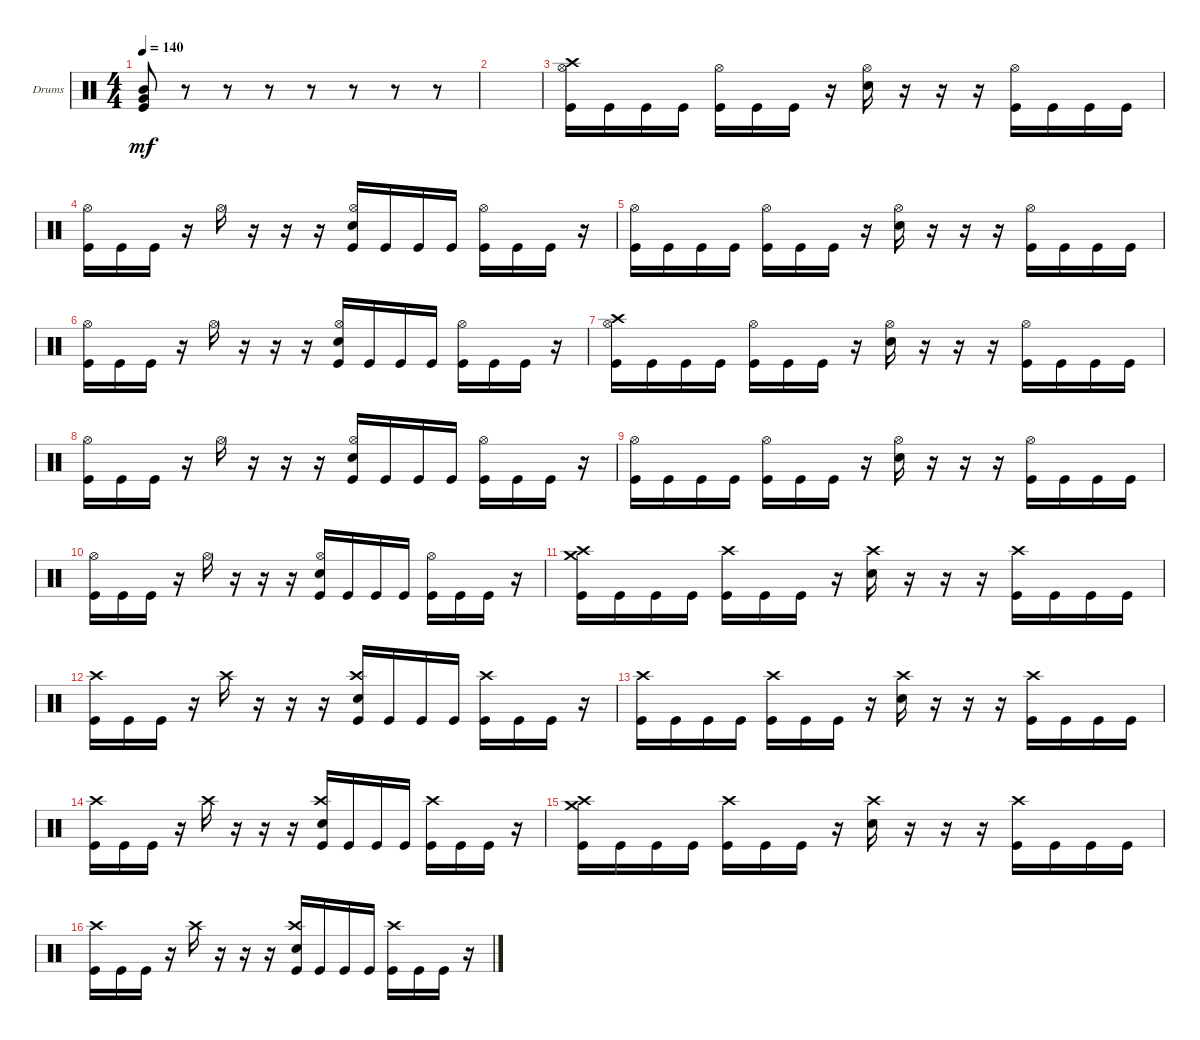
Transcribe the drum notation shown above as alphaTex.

\bracketExtendMode groupsimilarinstruments
\firstSystemTrackNameOrientation horizontal
\otherSystemsTrackNameOrientation horizontal
\track ("Drumkit" "Drums") {instrument percussion}
\staff {score}
\articulation defaults
\ts (4 4)
\tempo 140
\clef neutral
\ks c
("Very Low Tom (hit)" "Kick (hit)" "Mid Tom (hit)").8{dy mf} r.8 r.8 r.8 r.8 r.8 r.8 r.8 |
|
("Kick (hit)" "Hi-Hat (open)" "Crash high (hit)").16 "Kick (hit)".16 "Kick (hit)".16 "Kick (hit)".16 ("Kick (hit)" "Hi-Hat (open)").16 "Kick (hit)".16 "Kick (hit)".16 r.16 ("Hi-Hat (open)" "Snare (hit) 2").16 r.16 r.16 r.16 ("Kick (hit)" "Hi-Hat (open)").16 "Kick (hit)".16 "Kick (hit)".16 "Kick (hit)".16 |
("Kick (hit)" "Hi-Hat (open)").16 "Kick (hit)".16 "Kick (hit)".16 r.16 "Hi-Hat (open)".16 r.16 r.16 r.16 ("Kick (hit)" "Hi-Hat (open)" "Snare (hit) 2").16 "Kick (hit)".16 "Kick (hit)".16 "Kick (hit)".16 ("Kick (hit)" "Hi-Hat (open)").16 "Kick (hit)".16 "Kick (hit)".16 r.16 |
("Kick (hit)" "Hi-Hat (open)").16 "Kick (hit)".16 "Kick (hit)".16 "Kick (hit)".16 ("Kick (hit)" "Hi-Hat (open)").16 "Kick (hit)".16 "Kick (hit)".16 r.16 ("Hi-Hat (open)" "Snare (hit) 2").16 r.16 r.16 r.16 ("Kick (hit)" "Hi-Hat (open)").16 "Kick (hit)".16 "Kick (hit)".16 "Kick (hit)".16 |
("Kick (hit)" "Hi-Hat (open)").16 "Kick (hit)".16 "Kick (hit)".16 r.16 "Hi-Hat (open)".16 r.16 r.16 r.16 ("Kick (hit)" "Hi-Hat (open)" "Snare (hit) 2").16 "Kick (hit)".16 "Kick (hit)".16 "Kick (hit)".16 ("Kick (hit)" "Hi-Hat (open)").16 "Kick (hit)".16 "Kick (hit)".16 r.16 |
("Kick (hit)" "Hi-Hat (open)" "Crash high (hit)").16 "Kick (hit)".16 "Kick (hit)".16 "Kick (hit)".16 ("Kick (hit)" "Hi-Hat (open)").16 "Kick (hit)".16 "Kick (hit)".16 r.16 ("Hi-Hat (open)" "Snare (hit) 2").16 r.16 r.16 r.16 ("Kick (hit)" "Hi-Hat (open)").16 "Kick (hit)".16 "Kick (hit)".16 "Kick (hit)".16 |
("Kick (hit)" "Hi-Hat (open)").16 "Kick (hit)".16 "Kick (hit)".16 r.16 "Hi-Hat (open)".16 r.16 r.16 r.16 ("Kick (hit)" "Hi-Hat (open)" "Snare (hit) 2").16 "Kick (hit)".16 "Kick (hit)".16 "Kick (hit)".16 ("Kick (hit)" "Hi-Hat (open)").16 "Kick (hit)".16 "Kick (hit)".16 r.16 |
("Kick (hit)" "Hi-Hat (open)").16 "Kick (hit)".16 "Kick (hit)".16 "Kick (hit)".16 ("Kick (hit)" "Hi-Hat (open)").16 "Kick (hit)".16 "Kick (hit)".16 r.16 ("Hi-Hat (open)" "Snare (hit) 2").16 r.16 r.16 r.16 ("Kick (hit)" "Hi-Hat (open)").16 "Kick (hit)".16 "Kick (hit)".16 "Kick (hit)".16 |
("Kick (hit)" "Hi-Hat (open)").16 "Kick (hit)".16 "Kick (hit)".16 r.16 "Hi-Hat (open)".16 r.16 r.16 r.16 ("Kick (hit)" "Hi-Hat (open)" "Snare (hit) 2").16 "Kick (hit)".16 "Kick (hit)".16 "Kick (hit)".16 ("Kick (hit)" "Hi-Hat (open)").16 "Kick (hit)".16 "Kick (hit)".16 r.16 |
("Kick (hit)" "Crash high (hit)" "Crash medium (hit)").16 "Kick (hit)".16 "Kick (hit)".16 "Kick (hit)".16 ("Kick (hit)" "Crash high (hit)").16 "Kick (hit)".16 "Kick (hit)".16 r.16 ("Snare (hit) 2" "Crash high (hit)").16 r.16 r.16 r.16 ("Kick (hit)" "Crash high (hit)").16 "Kick (hit)".16 "Kick (hit)".16 "Kick (hit)".16 |
("Kick (hit)" "Crash high (hit)").16 "Kick (hit)".16 "Kick (hit)".16 r.16 "Crash high (hit)".16 r.16 r.16 r.16 ("Kick (hit)" "Snare (hit) 2" "Crash high (hit)").16 "Kick (hit)".16 "Kick (hit)".16 "Kick (hit)".16 ("Kick (hit)" "Crash high (hit)").16 "Kick (hit)".16 "Kick (hit)".16 r.16 |
("Kick (hit)" "Crash high (hit)").16 "Kick (hit)".16 "Kick (hit)".16 "Kick (hit)".16 ("Kick (hit)" "Crash high (hit)").16 "Kick (hit)".16 "Kick (hit)".16 r.16 ("Snare (hit) 2" "Crash high (hit)").16 r.16 r.16 r.16 ("Kick (hit)" "Crash high (hit)").16 "Kick (hit)".16 "Kick (hit)".16 "Kick (hit)".16 |
("Kick (hit)" "Crash high (hit)").16 "Kick (hit)".16 "Kick (hit)".16 r.16 "Crash high (hit)".16 r.16 r.16 r.16 ("Kick (hit)" "Snare (hit) 2" "Crash high (hit)").16 "Kick (hit)".16 "Kick (hit)".16 "Kick (hit)".16 ("Kick (hit)" "Crash high (hit)").16 "Kick (hit)".16 "Kick (hit)".16 r.16 |
("Kick (hit)" "Crash high (hit)" "Crash medium (hit)").16 "Kick (hit)".16 "Kick (hit)".16 "Kick (hit)".16 ("Kick (hit)" "Crash high (hit)").16 "Kick (hit)".16 "Kick (hit)".16 r.16 ("Snare (hit) 2" "Crash high (hit)").16 r.16 r.16 r.16 ("Kick (hit)" "Crash high (hit)").16 "Kick (hit)".16 "Kick (hit)".16 "Kick (hit)".16 |
("Kick (hit)" "Crash high (hit)").16 "Kick (hit)".16 "Kick (hit)".16 r.16 "Crash high (hit)".16 r.16 r.16 r.16 ("Kick (hit)" "Snare (hit) 2" "Crash high (hit)").16 "Kick (hit)".16 "Kick (hit)".16 "Kick (hit)".16 ("Kick (hit)" "Crash high (hit)").16 "Kick (hit)".16 "Kick (hit)".16 r.16
